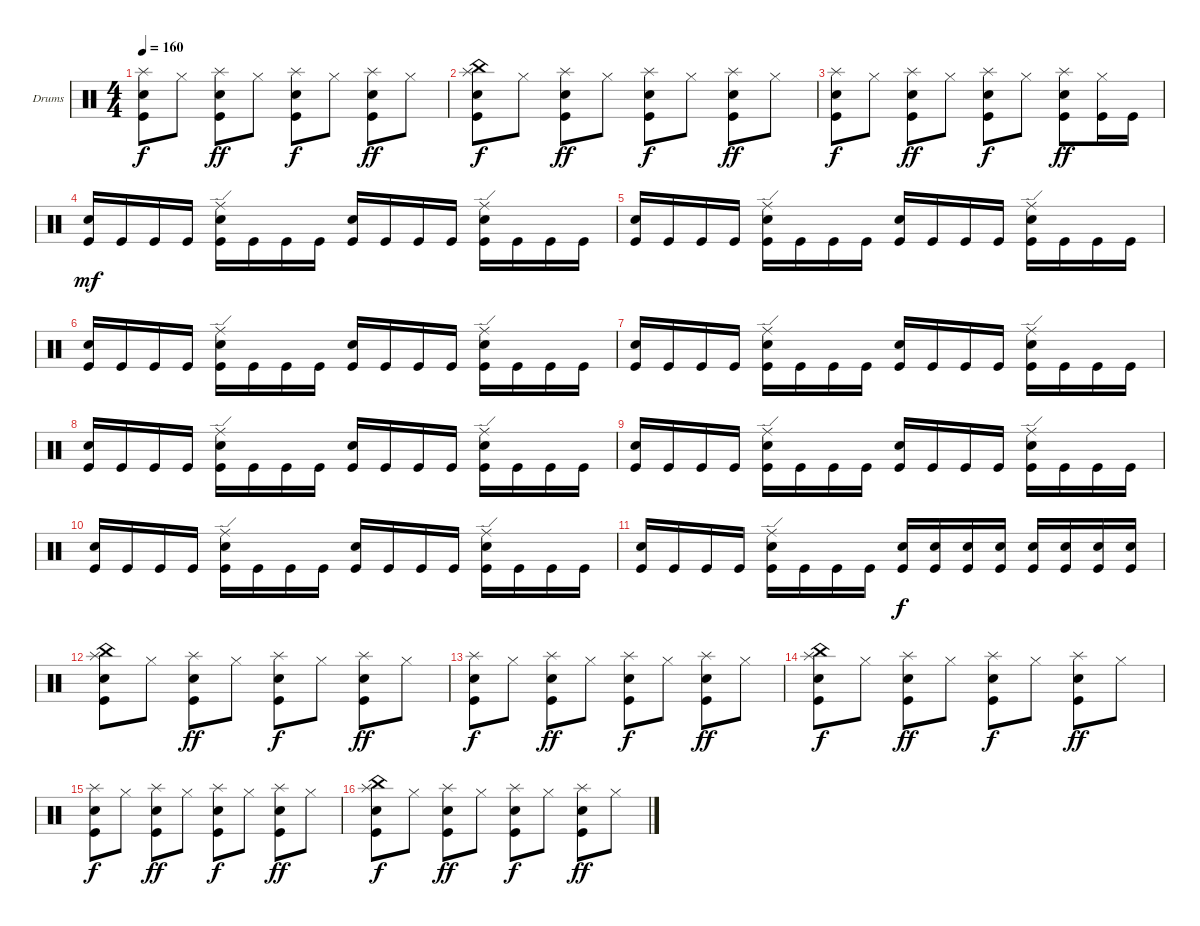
\bracketExtendMode groupsimilarinstruments
\firstSystemTrackNameOrientation horizontal
\otherSystemsTrackNameOrientation horizontal
\track ("Drumkit" "Drums") {instrument percussion}
\staff {score}
\articulation defaults
\ts (4 4)
\tempo 160
\clef neutral
\ks c
("Kick (hit)" "Snare (hit) 2" "Splash (hit)").8{dy f} "Hi-Hat (closed)".8 ("Kick (hit)" "Snare (hit) 2" "Splash (hit)").8{dy ff} "Hi-Hat (closed)".8 ("Kick (hit)" "Snare (hit) 2" "Splash (hit)").8{dy f} "Hi-Hat (closed)".8 ("Kick (hit)" "Snare (hit) 2" "Splash (hit)").8{dy ff} "Hi-Hat (closed)".8 |
("Kick (hit)" "Snare (hit) 2" "Splash (hit)" "China (hit)").8{dy f} "Hi-Hat (closed)".8 ("Kick (hit)" "Snare (hit) 2" "Splash (hit)").8{dy ff} "Hi-Hat (closed)".8 ("Kick (hit)" "Snare (hit) 2" "Splash (hit)").8{dy f} "Hi-Hat (closed)".8 ("Kick (hit)" "Snare (hit) 2" "Splash (hit)").8{dy ff} "Hi-Hat (closed)".8 |
("Kick (hit)" "Snare (hit) 2" "Splash (hit)").8{dy f} "Hi-Hat (closed)".8 ("Kick (hit)" "Snare (hit) 2" "Splash (hit)").8{dy ff} "Hi-Hat (closed)".8 ("Kick (hit)" "Snare (hit) 2" "Splash (hit)").8{dy f} "Hi-Hat (closed)".8 ("Kick (hit)" "Snare (hit) 2" "Splash (hit)").8{dy ff} ("Hi-Hat (closed)" "Kick (hit)").16 "Kick (hit)".16 |
("Kick (hit)" "Snare (hit) 2").16{dy mf} "Kick (hit)".16 "Kick (hit)".16 "Kick (hit)".16 ("Kick (hit)" "Snare (hit) 2" "Ride (edge)").16 "Kick (hit)".16 "Kick (hit)".16 "Kick (hit)".16 ("Kick (hit)" "Snare (hit) 2").16 "Kick (hit)".16 "Kick (hit)".16 "Kick (hit)".16 ("Kick (hit)" "Snare (hit) 2" "Ride (edge)").16 "Kick (hit)".16 "Kick (hit)".16 "Kick (hit)".16 |
("Kick (hit)" "Snare (hit) 2").16 "Kick (hit)".16 "Kick (hit)".16 "Kick (hit)".16 ("Kick (hit)" "Snare (hit) 2" "Ride (edge)").16 "Kick (hit)".16 "Kick (hit)".16 "Kick (hit)".16 ("Kick (hit)" "Snare (hit) 2").16 "Kick (hit)".16 "Kick (hit)".16 "Kick (hit)".16 ("Kick (hit)" "Snare (hit) 2" "Ride (edge)").16 "Kick (hit)".16 "Kick (hit)".16 "Kick (hit)".16 |
("Kick (hit)" "Snare (hit) 2").16 "Kick (hit)".16 "Kick (hit)".16 "Kick (hit)".16 ("Kick (hit)" "Snare (hit) 2" "Ride (edge)").16 "Kick (hit)".16 "Kick (hit)".16 "Kick (hit)".16 ("Kick (hit)" "Snare (hit) 2").16 "Kick (hit)".16 "Kick (hit)".16 "Kick (hit)".16 ("Kick (hit)" "Snare (hit) 2" "Ride (edge)").16 "Kick (hit)".16 "Kick (hit)".16 "Kick (hit)".16 |
("Kick (hit)" "Snare (hit) 2").16 "Kick (hit)".16 "Kick (hit)".16 "Kick (hit)".16 ("Kick (hit)" "Snare (hit) 2" "Ride (edge)").16 "Kick (hit)".16 "Kick (hit)".16 "Kick (hit)".16 ("Kick (hit)" "Snare (hit) 2").16 "Kick (hit)".16 "Kick (hit)".16 "Kick (hit)".16 ("Kick (hit)" "Snare (hit) 2" "Ride (edge)").16 "Kick (hit)".16 "Kick (hit)".16 "Kick (hit)".16 |
("Kick (hit)" "Snare (hit) 2").16 "Kick (hit)".16 "Kick (hit)".16 "Kick (hit)".16 ("Kick (hit)" "Snare (hit) 2" "Ride (edge)").16 "Kick (hit)".16 "Kick (hit)".16 "Kick (hit)".16 ("Kick (hit)" "Snare (hit) 2").16 "Kick (hit)".16 "Kick (hit)".16 "Kick (hit)".16 ("Kick (hit)" "Snare (hit) 2" "Ride (edge)").16 "Kick (hit)".16 "Kick (hit)".16 "Kick (hit)".16 |
("Kick (hit)" "Snare (hit) 2").16 "Kick (hit)".16 "Kick (hit)".16 "Kick (hit)".16 ("Kick (hit)" "Snare (hit) 2" "Ride (edge)").16 "Kick (hit)".16 "Kick (hit)".16 "Kick (hit)".16 ("Kick (hit)" "Snare (hit) 2").16 "Kick (hit)".16 "Kick (hit)".16 "Kick (hit)".16 ("Kick (hit)" "Snare (hit) 2" "Ride (edge)").16 "Kick (hit)".16 "Kick (hit)".16 "Kick (hit)".16 |
("Kick (hit)" "Snare (hit) 2").16 "Kick (hit)".16 "Kick (hit)".16 "Kick (hit)".16 ("Kick (hit)" "Snare (hit) 2" "Ride (edge)").16 "Kick (hit)".16 "Kick (hit)".16 "Kick (hit)".16 ("Kick (hit)" "Snare (hit) 2").16 "Kick (hit)".16 "Kick (hit)".16 "Kick (hit)".16 ("Kick (hit)" "Snare (hit) 2" "Ride (edge)").16 "Kick (hit)".16 "Kick (hit)".16 "Kick (hit)".16 |
("Kick (hit)" "Snare (hit) 2").16 "Kick (hit)".16 "Kick (hit)".16 "Kick (hit)".16 ("Kick (hit)" "Snare (hit) 2" "Ride (edge)").16 "Kick (hit)".16 "Kick (hit)".16 "Kick (hit)".16 ("Kick (hit)" "Snare (hit) 2").16{dy f} ("Kick (hit)" "Snare (hit) 2").16 ("Kick (hit)" "Snare (hit) 2").16 ("Kick (hit)" "Snare (hit) 2").16 ("Kick (hit)" "Snare (hit) 2").16 ("Kick (hit)" "Snare (hit) 2").16 ("Kick (hit)" "Snare (hit) 2").16 ("Kick (hit)" "Snare (hit) 2").16 |
("Kick (hit)" "Snare (hit) 2" "Splash (hit)" "China (hit)").8 "Hi-Hat (closed)".8 ("Kick (hit)" "Snare (hit) 2" "Splash (hit)").8{dy ff} "Hi-Hat (closed)".8 ("Kick (hit)" "Snare (hit) 2" "Splash (hit)").8{dy f} "Hi-Hat (closed)".8 ("Kick (hit)" "Snare (hit) 2" "Splash (hit)").8{dy ff} "Hi-Hat (closed)".8 |
("Kick (hit)" "Snare (hit) 2" "Splash (hit)").8{dy f} "Hi-Hat (closed)".8 ("Kick (hit)" "Snare (hit) 2" "Splash (hit)").8{dy ff} "Hi-Hat (closed)".8 ("Kick (hit)" "Snare (hit) 2" "Splash (hit)").8{dy f} "Hi-Hat (closed)".8 ("Kick (hit)" "Snare (hit) 2" "Splash (hit)").8{dy ff} "Hi-Hat (closed)".8 |
("Kick (hit)" "Snare (hit) 2" "Splash (hit)" "China (hit)").8{dy f} "Hi-Hat (closed)".8 ("Kick (hit)" "Snare (hit) 2" "Splash (hit)").8{dy ff} "Hi-Hat (closed)".8 ("Kick (hit)" "Snare (hit) 2" "Splash (hit)").8{dy f} "Hi-Hat (closed)".8 ("Kick (hit)" "Snare (hit) 2" "Splash (hit)").8{dy ff} "Hi-Hat (closed)".8 |
("Kick (hit)" "Snare (hit) 2" "Splash (hit)").8{dy f} "Hi-Hat (closed)".8 ("Kick (hit)" "Snare (hit) 2" "Splash (hit)").8{dy ff} "Hi-Hat (closed)".8 ("Kick (hit)" "Snare (hit) 2" "Splash (hit)").8{dy f} "Hi-Hat (closed)".8 ("Kick (hit)" "Snare (hit) 2" "Splash (hit)").8{dy ff} "Hi-Hat (closed)".8 |
("Kick (hit)" "Snare (hit) 2" "Splash (hit)" "China (hit)").8{dy f} "Hi-Hat (closed)".8 ("Kick (hit)" "Snare (hit) 2" "Splash (hit)").8{dy ff} "Hi-Hat (closed)".8 ("Kick (hit)" "Snare (hit) 2" "Splash (hit)").8{dy f} "Hi-Hat (closed)".8 ("Kick (hit)" "Snare (hit) 2" "Splash (hit)").8{dy ff} "Hi-Hat (closed)".8
